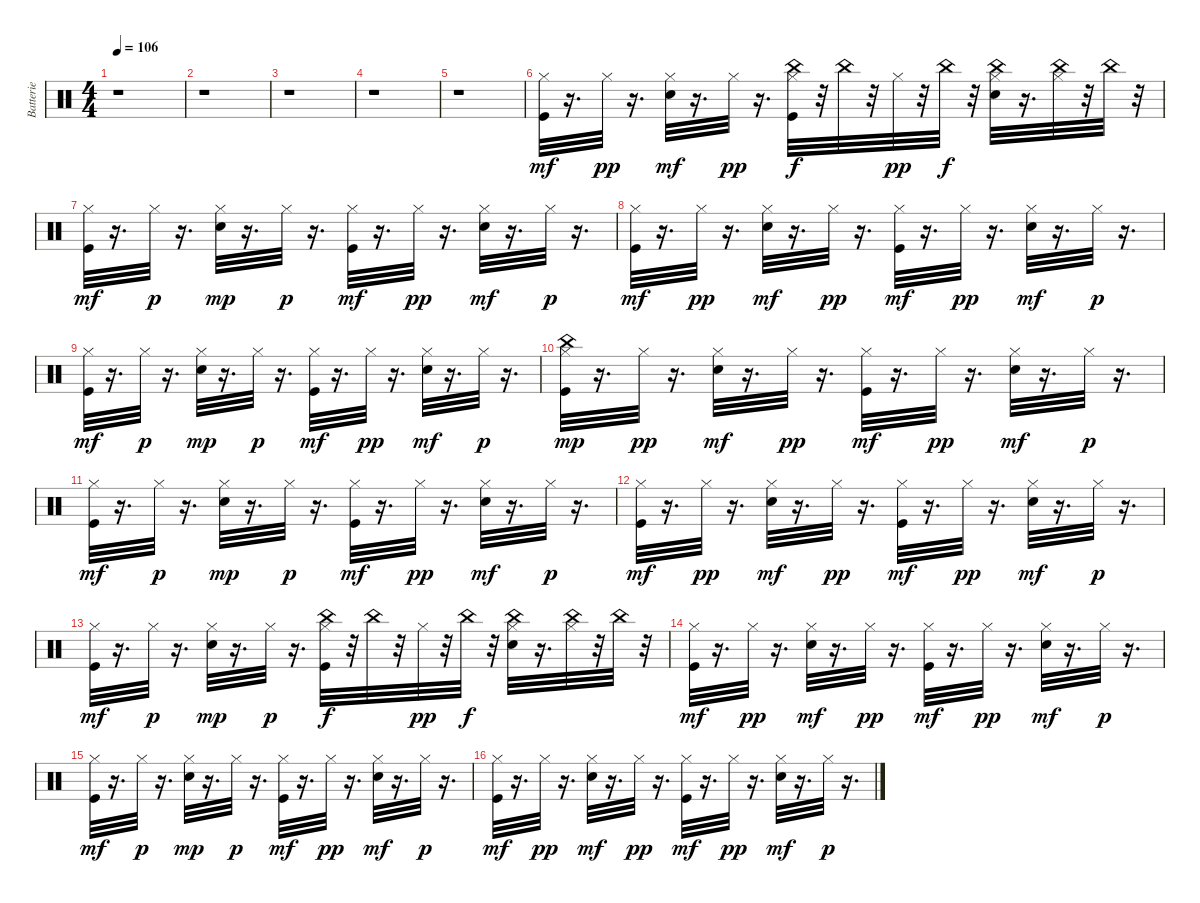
\track ("Batterie" "Batterie") {instrument percussion}
\staff {score}
\articulation defaults
\ts (4 4)
\tempo 106
\clef neutral
\ks c
r.1{dy mf} |
r.1 |
r.1 |
r.1 |
r.1 |
("Hi-Hat (closed)" "Kick (hit)").32{balance 8} r.16{d} "Hi-Hat (closed)".32{dy pp} r.16{d} ("Hi-Hat (closed)" "Electric Snare (hit)").32{dy mf} r.16{d} "Hi-Hat (closed)".32{dy pp} r.16{d} ("Hi-Hat (closed)" "China (choke)" "Kick (hit)").32{dy f} r.32 "China (choke)".32 r.32 "Hi-Hat (closed)".32{dy pp} r.32 "China (choke)".32{dy f} r.32 ("Hi-Hat (closed)" "China (choke)" "Electric Snare (hit)").32 r.16{d} ("Hi-Hat (closed)" "China (choke)").32 r.32 "China (choke)".32 r.32 |
("Hi-Hat (closed)" "Kick (hit)").32{dy mf} r.16{d} "Hi-Hat (closed)".32{dy p} r.16{d} ("Hi-Hat (closed)" "Electric Snare (hit)").32{dy mp} r.16{d} "Hi-Hat (closed)".32{dy p} r.16{d} ("Hi-Hat (closed)" "Kick (hit)").32{dy mf} r.16{d} "Hi-Hat (closed)".32{dy pp} r.16{d} ("Hi-Hat (closed)" "Electric Snare (hit)").32{dy mf} r.16{d} "Hi-Hat (closed)".32{dy p} r.16{d} |
("Hi-Hat (closed)" "Kick (hit)").32{dy mf} r.16{d} "Hi-Hat (closed)".32{dy pp} r.16{d} ("Hi-Hat (closed)" "Electric Snare (hit)").32{dy mf} r.16{d} "Hi-Hat (closed)".32{dy pp} r.16{d} ("Hi-Hat (closed)" "Kick (hit)").32{dy mf} r.16{d} "Hi-Hat (closed)".32{dy pp} r.16{d} ("Hi-Hat (closed)" "Electric Snare (hit)").32{dy mf} r.16{d} "Hi-Hat (closed)".32{dy p} r.16{d} |
("Hi-Hat (closed)" "Kick (hit)").32{dy mf} r.16{d} "Hi-Hat (closed)".32{dy p} r.16{d} ("Hi-Hat (closed)" "Electric Snare (hit)").32{dy mp} r.16{d} "Hi-Hat (closed)".32{dy p} r.16{d} ("Hi-Hat (closed)" "Kick (hit)").32{dy mf} r.16{d} "Hi-Hat (closed)".32{dy pp} r.16{d} ("Hi-Hat (closed)" "Electric Snare (hit)").32{dy mf} r.16{d} "Hi-Hat (closed)".32{dy p} r.16{d} |
("Hi-Hat (closed)" "Kick (hit)" "China (hit)").32{dy mp} r.16{d} "Hi-Hat (closed)".32{dy pp} r.16{d} ("Hi-Hat (closed)" "Electric Snare (hit)").32{dy mf} r.16{d} "Hi-Hat (closed)".32{dy pp} r.16{d} ("Hi-Hat (closed)" "Kick (hit)").32{dy mf} r.16{d} "Hi-Hat (closed)".32{dy pp} r.16{d} ("Hi-Hat (closed)" "Electric Snare (hit)").32{dy mf} r.16{d} "Hi-Hat (closed)".32{dy p} r.16{d} |
("Hi-Hat (closed)" "Kick (hit)").32{dy mf} r.16{d} "Hi-Hat (closed)".32{dy p} r.16{d} ("Hi-Hat (closed)" "Electric Snare (hit)").32{dy mp} r.16{d} "Hi-Hat (closed)".32{dy p} r.16{d} ("Hi-Hat (closed)" "Kick (hit)").32{dy mf} r.16{d} "Hi-Hat (closed)".32{dy pp} r.16{d} ("Hi-Hat (closed)" "Electric Snare (hit)").32{dy mf} r.16{d} "Hi-Hat (closed)".32{dy p} r.16{d} |
("Hi-Hat (closed)" "Kick (hit)").32{dy mf} r.16{d} "Hi-Hat (closed)".32{dy pp} r.16{d} ("Hi-Hat (closed)" "Electric Snare (hit)").32{dy mf} r.16{d} "Hi-Hat (closed)".32{dy pp} r.16{d} ("Hi-Hat (closed)" "Kick (hit)").32{dy mf} r.16{d} "Hi-Hat (closed)".32{dy pp} r.16{d} ("Hi-Hat (closed)" "Electric Snare (hit)").32{dy mf} r.16{d} "Hi-Hat (closed)".32{dy p} r.16{d} |
("Hi-Hat (closed)" "Kick (hit)").32{dy mf} r.16{d} "Hi-Hat (closed)".32{dy p} r.16{d} ("Hi-Hat (closed)" "Electric Snare (hit)").32{dy mp} r.16{d} "Hi-Hat (closed)".32{dy p} r.16{d} ("Hi-Hat (closed)" "China (choke)" "Kick (hit)").32{dy f} r.32 "China (choke)".32 r.32 "Hi-Hat (closed)".32{dy pp} r.32 "China (choke)".32{dy f} r.32 ("Hi-Hat (closed)" "China (choke)" "Electric Snare (hit)").32 r.16{d} ("Hi-Hat (closed)" "China (choke)").32 r.32 "China (choke)".32 r.32 |
("Hi-Hat (closed)" "Kick (hit)").32{dy mf} r.16{d} "Hi-Hat (closed)".32{dy pp} r.16{d} ("Hi-Hat (closed)" "Electric Snare (hit)").32{dy mf} r.16{d} "Hi-Hat (closed)".32{dy pp} r.16{d} ("Hi-Hat (closed)" "Kick (hit)").32{dy mf} r.16{d} "Hi-Hat (closed)".32{dy pp} r.16{d} ("Hi-Hat (closed)" "Electric Snare (hit)").32{dy mf} r.16{d} "Hi-Hat (closed)".32{dy p} r.16{d} |
("Hi-Hat (closed)" "Kick (hit)").32{dy mf} r.16{d} "Hi-Hat (closed)".32{dy p} r.16{d} ("Hi-Hat (closed)" "Electric Snare (hit)").32{dy mp} r.16{d} "Hi-Hat (closed)".32{dy p} r.16{d} ("Hi-Hat (closed)" "Kick (hit)").32{dy mf} r.16{d} "Hi-Hat (closed)".32{dy pp} r.16{d} ("Hi-Hat (closed)" "Electric Snare (hit)").32{dy mf} r.16{d} "Hi-Hat (closed)".32{dy p} r.16{d} |
("Hi-Hat (closed)" "Kick (hit)").32{dy mf} r.16{d} "Hi-Hat (closed)".32{dy pp} r.16{d} ("Hi-Hat (closed)" "Electric Snare (hit)").32{dy mf} r.16{d} "Hi-Hat (closed)".32{dy pp} r.16{d} ("Hi-Hat (closed)" "Kick (hit)").32{dy mf} r.16{d} "Hi-Hat (closed)".32{dy pp} r.16{d} ("Hi-Hat (closed)" "Electric Snare (hit)").32{dy mf} r.16{d} "Hi-Hat (closed)".32{dy p} r.16{d}
